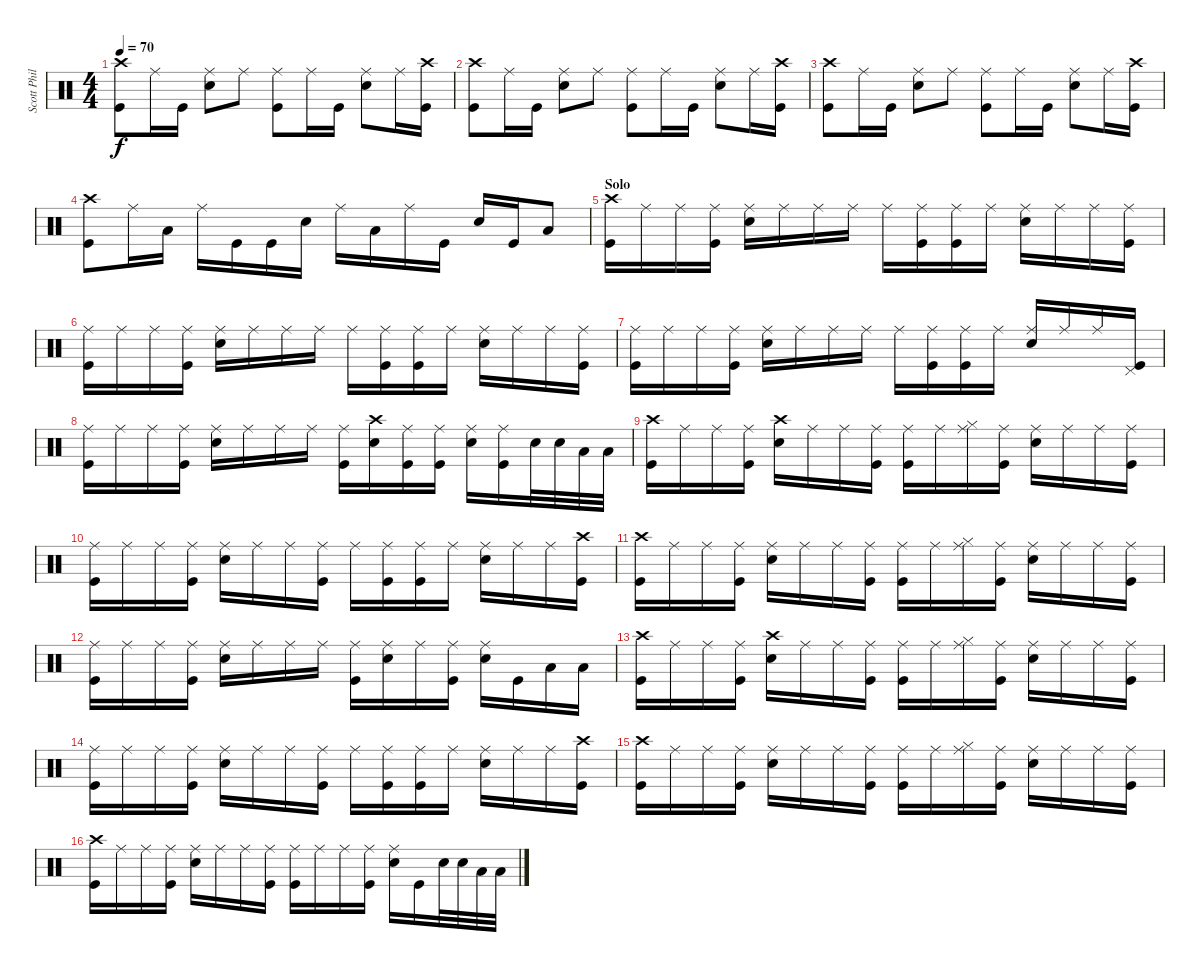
\track ("Scott Phillips" "Scott Phil") {instrument percussion}
\staff {score}
\articulation defaults
\ts (4 4)
\tempo 70
\clef neutral
\ks c
("Crash high (hit)" "Kick (hit)").8{dy f} "Ride (middle)".16 "Kick (hit)".16 ("Ride (middle)" "Snare (hit) 2").8 "Ride (middle)".8 ("Ride (middle)" "Kick (hit)").8 "Ride (middle)".16 "Kick (hit)".16 ("Ride (middle)" "Snare (hit) 2").8 "Ride (middle)".16 ("Crash high (hit)" "Kick (hit)").16 |
("Crash high (hit)" "Kick (hit)").8 "Ride (middle)".16 "Kick (hit)".16 ("Ride (middle)" "Snare (hit) 2").8 "Ride (middle)".8 ("Ride (middle)" "Kick (hit)").8 "Ride (middle)".16 "Kick (hit)".16 ("Ride (middle)" "Snare (hit) 2").8 "Ride (middle)".16 ("Crash high (hit)" "Kick (hit)").16 |
("Crash high (hit)" "Kick (hit)").8 "Ride (middle)".16 "Kick (hit)".16 ("Ride (middle)" "Snare (hit) 2").8 "Ride (middle)".8 ("Ride (middle)" "Kick (hit)").8 "Ride (middle)".16 "Kick (hit)".16 ("Ride (middle)" "Snare (hit) 2").8 "Ride (middle)".16 ("Crash high (hit)" "Kick (hit)").16 |
("Crash high (hit)" "Kick (hit)").8 "Ride (middle)".16 "Low Tom (hit)".16 "Ride (middle)".16 "Kick (hit)".16 "Kick (hit)".16 "Snare (hit) 2".16 "Ride (middle)".16 "Low Tom (hit)".16 "Ride (middle)".16 "Kick (hit)".16 "Snare (hit) 2".16 "Kick (hit)".16 "Low Tom (hit)".8 |
\section ("" "Solo")
("Crash high (hit)" "Kick (hit)").16 "Ride (middle)".16 "Ride (middle)".16 ("Ride (middle)" "Kick (hit)").16 ("Ride (middle)" "Snare (hit) 2").16 "Ride (middle)".16 "Ride (middle)".16 "Ride (middle)".16 "Ride (middle)".16 ("Ride (middle)" "Kick (hit)").16 ("Ride (middle)" "Kick (hit)").16 "Ride (middle)".16 ("Ride (middle)" "Snare (hit) 2").16 "Ride (middle)".16 "Ride (middle)".16 ("Ride (middle)" "Kick (hit)").16 |
("Ride (middle)" "Kick (hit)").16 "Ride (middle)".16 "Ride (middle)".16 ("Ride (middle)" "Kick (hit)").16 ("Ride (middle)" "Snare (hit) 2").16 "Ride (middle)".16 "Ride (middle)".16 "Ride (middle)".16 "Ride (middle)".16 ("Ride (middle)" "Kick (hit)").16 ("Ride (middle)" "Kick (hit)").16 "Ride (middle)".16 ("Ride (middle)" "Snare (hit) 2").16 "Ride (middle)".16 "Ride (middle)".16 ("Ride (middle)" "Kick (hit)").16 |
("Ride (middle)" "Kick (hit)").16 "Ride (middle)".16 "Ride (middle)".16 ("Ride (middle)" "Kick (hit)").16 ("Ride (middle)" "Snare (hit) 2").16 "Ride (middle)".16 "Ride (middle)".16 "Ride (middle)".16 "Ride (middle)".16 ("Ride (middle)" "Kick (hit)").16 ("Ride (middle)" "Kick (hit)").16 "Ride (middle)".16 ("Ride (middle)" "Snare (hit) 2").16 "Ride (middle)".16 "Ride (middle)".16 ("Pedal Hi-Hat (hit)" "Kick (hit)").16 |
("Ride (middle)" "Kick (hit)").16 "Ride (middle)".16 "Ride (middle)".16 ("Ride (middle)" "Kick (hit)").16 ("Ride (middle)" "Snare (hit) 2").16 "Ride (middle)".16 "Ride (middle)".16 "Ride (middle)".16 ("Ride (middle)" "Kick (hit)").16 ("Crash high (hit)" "Snare (hit) 2").16 ("Ride (middle)" "Kick (hit)").16 ("Ride (middle)" "Kick (hit)").16 ("Ride (middle)" "Snare (hit) 2").16 ("Ride (middle)" "Kick (hit)").16 "Snare (hit) 2".32 "Snare (hit) 2".32 "Low Tom (hit)".32 "Low Tom (hit)".32 |
("Crash high (hit)" "Kick (hit)").16 "Ride (middle)".16 "Ride (middle)".16 ("Ride (middle)" "Kick (hit)").16 ("Crash high (hit)" "Snare (hit) 2").16 "Ride (middle)".16 "Ride (middle)".16 ("Ride (middle)" "Kick (hit)").16 ("Ride (middle)" "Kick (hit)").16 "Ride (middle)".16 ("Ride (middle)" "Hi-Hat (closed)").16 ("Ride (middle)" "Kick (hit)").16 ("Ride (middle)" "Snare (hit) 2").16 "Ride (middle)".16 "Ride (middle)".16 ("Ride (middle)" "Kick (hit)").16 |
("Ride (middle)" "Kick (hit)").16 "Ride (middle)".16 "Ride (middle)".16 ("Ride (middle)" "Kick (hit)").16 ("Ride (middle)" "Snare (hit) 2").16 "Ride (middle)".16 "Ride (middle)".16 ("Ride (middle)" "Kick (hit)").16 "Ride (middle)".16 ("Ride (middle)" "Kick (hit)").16 ("Ride (middle)" "Kick (hit)").16 "Ride (middle)".16 ("Ride (middle)" "Snare (hit) 2").16 "Ride (middle)".16 "Ride (middle)".16 ("Crash high (hit)" "Kick (hit)").16 |
("Crash high (hit)" "Kick (hit)").16 "Ride (middle)".16 "Ride (middle)".16 ("Ride (middle)" "Kick (hit)").16 ("Ride (middle)" "Snare (hit) 2").16 "Ride (middle)".16 "Ride (middle)".16 ("Ride (middle)" "Kick (hit)").16 ("Ride (middle)" "Kick (hit)").16 "Ride (middle)".16 ("Ride (middle)" "Hi-Hat (closed)").16 ("Ride (middle)" "Kick (hit)").16 ("Ride (middle)" "Snare (hit) 2").16 "Ride (middle)".16 "Ride (middle)".16 ("Ride (middle)" "Kick (hit)").16 |
("Ride (middle)" "Kick (hit)").16 "Ride (middle)".16 "Ride (middle)".16 ("Ride (middle)" "Kick (hit)").16 ("Ride (middle)" "Snare (hit) 2").16 "Ride (middle)".16 "Ride (middle)".16 "Ride (middle)".16 ("Ride (middle)" "Kick (hit)").16 ("Ride (middle)" "Snare (hit) 2").16 "Ride (middle)".16 ("Ride (middle)" "Kick (hit)").16 ("Ride (middle)" "Snare (hit) 2").16 "Kick (hit)".16 "Low Tom (hit)".16 "Low Tom (hit)".16 |
("Crash high (hit)" "Kick (hit)").16 "Ride (middle)".16 "Ride (middle)".16 ("Ride (middle)" "Kick (hit)").16 ("Crash high (hit)" "Snare (hit) 2").16 "Ride (middle)".16 "Ride (middle)".16 ("Ride (middle)" "Kick (hit)").16 ("Ride (middle)" "Kick (hit)").16 "Ride (middle)".16 ("Ride (middle)" "Hi-Hat (closed)").16 ("Ride (middle)" "Kick (hit)").16 ("Ride (middle)" "Snare (hit) 2").16 "Ride (middle)".16 "Ride (middle)".16 ("Ride (middle)" "Kick (hit)").16 |
("Ride (middle)" "Kick (hit)").16 "Ride (middle)".16 "Ride (middle)".16 ("Ride (middle)" "Kick (hit)").16 ("Ride (middle)" "Snare (hit) 2").16 "Ride (middle)".16 "Ride (middle)".16 ("Ride (middle)" "Kick (hit)").16 "Ride (middle)".16 ("Ride (middle)" "Kick (hit)").16 ("Ride (middle)" "Kick (hit)").16 "Ride (middle)".16 ("Ride (middle)" "Snare (hit) 2").16 "Ride (middle)".16 "Ride (middle)".16 ("Crash high (hit)" "Kick (hit)").16 |
("Crash high (hit)" "Kick (hit)").16 "Ride (middle)".16 "Ride (middle)".16 ("Ride (middle)" "Kick (hit)").16 ("Ride (middle)" "Snare (hit) 2").16 "Ride (middle)".16 "Ride (middle)".16 ("Ride (middle)" "Kick (hit)").16 ("Ride (middle)" "Kick (hit)").16 "Ride (middle)".16 ("Ride (middle)" "Hi-Hat (closed)").16 ("Ride (middle)" "Kick (hit)").16 ("Ride (middle)" "Snare (hit) 2").16 "Ride (middle)".16 "Ride (middle)".16 ("Ride (middle)" "Kick (hit)").16 |
("Crash high (hit)" "Kick (hit)").16 "Ride (middle)".16 "Ride (middle)".16 ("Ride (middle)" "Kick (hit)").16 ("Ride (middle)" "Snare (hit) 2").16 "Ride (middle)".16 "Ride (middle)".16 ("Ride (middle)" "Kick (hit)").16 ("Ride (middle)" "Kick (hit)").16 "Ride (middle)".16 "Ride (middle)".16 ("Ride (middle)" "Kick (hit)").16 ("Ride (middle)" "Snare (hit) 2").16 "Kick (hit)".16 "Snare (hit) 2".32 "Snare (hit) 2".32 "Low Tom (hit)".32 "Low Tom (hit)".32
